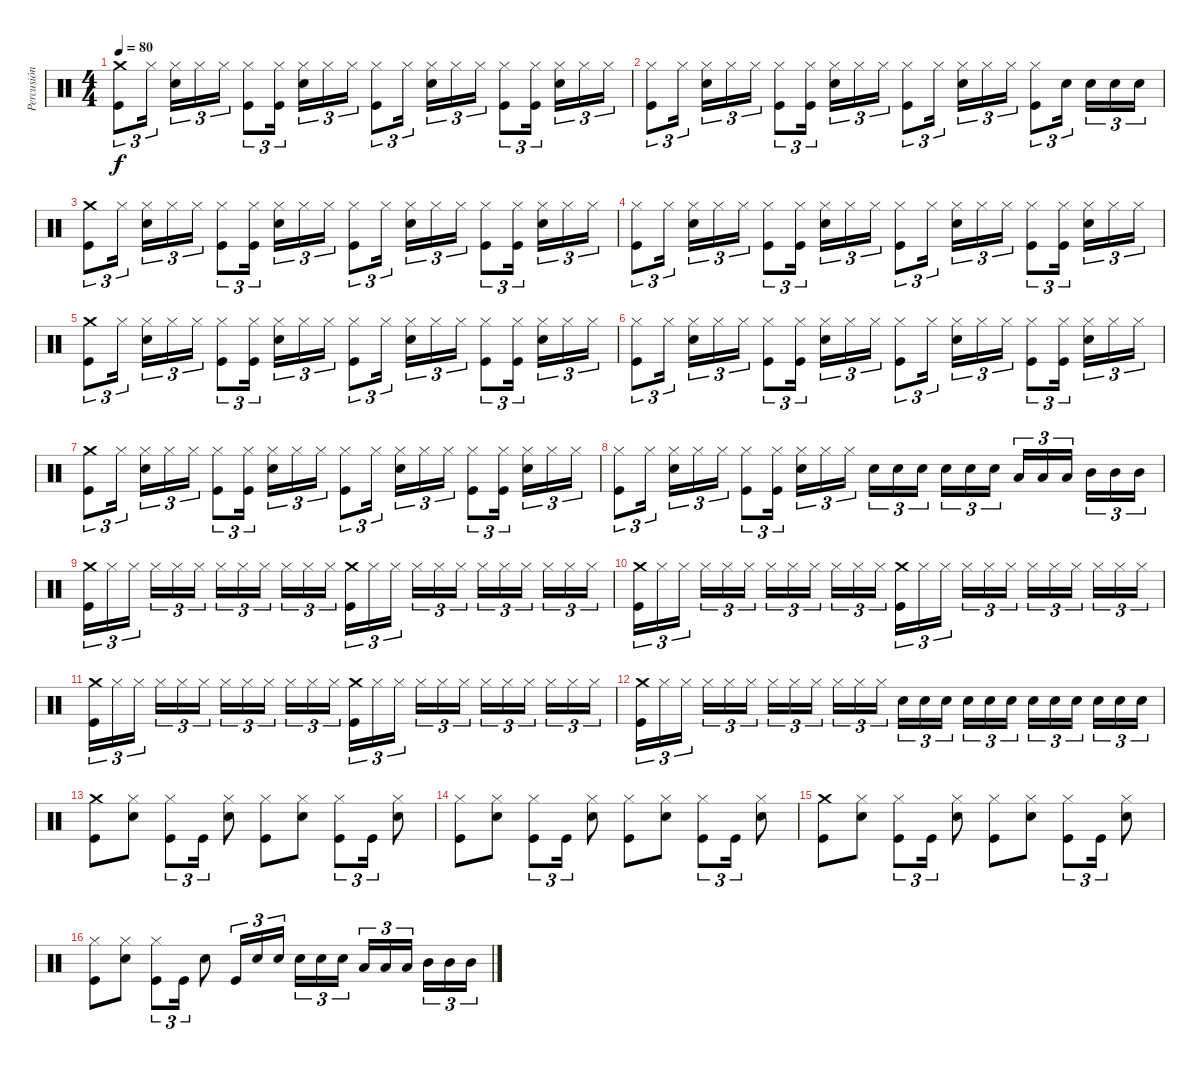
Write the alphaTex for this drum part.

\track ("Percusión con doble bombo" "Percusión ") {mute instrument percussion}
\staff {score}
\articulation defaults
\ts (4 4)
\tempo 80
\clef neutral
\ks c
("Crash medium (hit)" "Kick (hit)").8{tu (3 2) dy f} "Hi-Hat (closed)".16{tu (3 2) beam splitsecondary} ("Hi-Hat (closed)" "Snare (hit) 2").16{tu (3 2)} "Hi-Hat (closed)".16{tu (3 2)} "Hi-Hat (closed)".16{tu (3 2)} ("Hi-Hat (closed)" "Kick (hit)").8{tu (3 2)} ("Hi-Hat (closed)" "Kick (hit)").16{tu (3 2) beam splitsecondary} ("Hi-Hat (closed)" "Snare (hit) 2").16{tu (3 2)} "Hi-Hat (closed)".16{tu (3 2)} "Hi-Hat (closed)".16{tu (3 2)} ("Hi-Hat (closed)" "Kick (hit)").8{tu (3 2)} "Hi-Hat (closed)".16{tu (3 2) beam splitsecondary} ("Hi-Hat (closed)" "Snare (hit) 2").16{tu (3 2)} "Hi-Hat (closed)".16{tu (3 2)} "Hi-Hat (closed)".16{tu (3 2)} ("Hi-Hat (closed)" "Kick (hit)").8{tu (3 2)} ("Hi-Hat (closed)" "Kick (hit)").16{tu (3 2) beam splitsecondary} ("Hi-Hat (closed)" "Snare (hit) 2").16{tu (3 2)} "Hi-Hat (closed)".16{tu (3 2)} "Hi-Hat (closed)".16{tu (3 2)} |
("Hi-Hat (closed)" "Kick (hit)").8{tu (3 2)} "Hi-Hat (closed)".16{tu (3 2) beam splitsecondary} ("Hi-Hat (closed)" "Snare (hit) 2").16{tu (3 2)} "Hi-Hat (closed)".16{tu (3 2)} "Hi-Hat (closed)".16{tu (3 2)} ("Hi-Hat (closed)" "Kick (hit)").8{tu (3 2)} ("Hi-Hat (closed)" "Kick (hit)").16{tu (3 2) beam splitsecondary} ("Hi-Hat (closed)" "Snare (hit) 2").16{tu (3 2)} "Hi-Hat (closed)".16{tu (3 2)} "Hi-Hat (closed)".16{tu (3 2)} ("Hi-Hat (closed)" "Kick (hit)").8{tu (3 2)} "Hi-Hat (closed)".16{tu (3 2) beam splitsecondary} ("Hi-Hat (closed)" "Snare (hit) 2").16{tu (3 2)} "Hi-Hat (closed)".16{tu (3 2)} "Hi-Hat (closed)".16{tu (3 2)} ("Hi-Hat (closed)" "Kick (hit)").8{tu (3 2)} "Snare (hit) 2".16{tu (3 2) beam splitsecondary} "Snare (hit) 2".16{tu (3 2)} "Snare (hit) 2".16{tu (3 2)} "Snare (hit) 2".16{tu (3 2)} |
("Crash medium (hit)" "Kick (hit)").8{tu (3 2)} "Hi-Hat (closed)".16{tu (3 2) beam splitsecondary} ("Hi-Hat (closed)" "Snare (hit) 2").16{tu (3 2)} "Hi-Hat (closed)".16{tu (3 2)} "Hi-Hat (closed)".16{tu (3 2)} ("Hi-Hat (closed)" "Kick (hit)").8{tu (3 2)} ("Hi-Hat (closed)" "Kick (hit)").16{tu (3 2) beam splitsecondary} ("Hi-Hat (closed)" "Snare (hit) 2").16{tu (3 2)} "Hi-Hat (closed)".16{tu (3 2)} "Hi-Hat (closed)".16{tu (3 2)} ("Hi-Hat (closed)" "Kick (hit)").8{tu (3 2)} "Hi-Hat (closed)".16{tu (3 2) beam splitsecondary} ("Hi-Hat (closed)" "Snare (hit) 2").16{tu (3 2)} "Hi-Hat (closed)".16{tu (3 2)} "Hi-Hat (closed)".16{tu (3 2)} ("Hi-Hat (closed)" "Kick (hit)").8{tu (3 2)} ("Hi-Hat (closed)" "Kick (hit)").16{tu (3 2) beam splitsecondary} ("Hi-Hat (closed)" "Snare (hit) 2").16{tu (3 2)} "Hi-Hat (closed)".16{tu (3 2)} "Hi-Hat (closed)".16{tu (3 2)} |
("Hi-Hat (closed)" "Kick (hit)").8{tu (3 2)} "Hi-Hat (closed)".16{tu (3 2) beam splitsecondary} ("Hi-Hat (closed)" "Snare (hit) 2").16{tu (3 2)} "Hi-Hat (closed)".16{tu (3 2)} "Hi-Hat (closed)".16{tu (3 2)} ("Hi-Hat (closed)" "Kick (hit)").8{tu (3 2)} ("Hi-Hat (closed)" "Kick (hit)").16{tu (3 2) beam splitsecondary} ("Hi-Hat (closed)" "Snare (hit) 2").16{tu (3 2)} "Hi-Hat (closed)".16{tu (3 2)} "Hi-Hat (closed)".16{tu (3 2)} ("Hi-Hat (closed)" "Kick (hit)").8{tu (3 2)} "Hi-Hat (closed)".16{tu (3 2) beam splitsecondary} ("Hi-Hat (closed)" "Snare (hit) 2").16{tu (3 2)} "Hi-Hat (closed)".16{tu (3 2)} "Hi-Hat (closed)".16{tu (3 2)} ("Hi-Hat (closed)" "Kick (hit)").8{tu (3 2)} ("Hi-Hat (closed)" "Kick (hit)").16{tu (3 2) beam splitsecondary} ("Hi-Hat (closed)" "Snare (hit) 2").16{tu (3 2)} "Hi-Hat (closed)".16{tu (3 2)} "Hi-Hat (closed)".16{tu (3 2)} |
("Crash medium (hit)" "Kick (hit)").8{tu (3 2)} "Hi-Hat (closed)".16{tu (3 2) beam splitsecondary} ("Hi-Hat (closed)" "Snare (hit) 2").16{tu (3 2)} "Hi-Hat (closed)".16{tu (3 2)} "Hi-Hat (closed)".16{tu (3 2)} ("Hi-Hat (closed)" "Kick (hit)").8{tu (3 2)} ("Hi-Hat (closed)" "Kick (hit)").16{tu (3 2) beam splitsecondary} ("Hi-Hat (closed)" "Snare (hit) 2").16{tu (3 2)} "Hi-Hat (closed)".16{tu (3 2)} "Hi-Hat (closed)".16{tu (3 2)} ("Hi-Hat (closed)" "Kick (hit)").8{tu (3 2)} "Hi-Hat (closed)".16{tu (3 2) beam splitsecondary} ("Hi-Hat (closed)" "Snare (hit) 2").16{tu (3 2)} "Hi-Hat (closed)".16{tu (3 2)} "Hi-Hat (closed)".16{tu (3 2)} ("Hi-Hat (closed)" "Kick (hit)").8{tu (3 2)} ("Hi-Hat (closed)" "Kick (hit)").16{tu (3 2) beam splitsecondary} ("Hi-Hat (closed)" "Snare (hit) 2").16{tu (3 2)} "Hi-Hat (closed)".16{tu (3 2)} "Hi-Hat (closed)".16{tu (3 2)} |
("Hi-Hat (closed)" "Kick (hit)").8{tu (3 2)} "Hi-Hat (closed)".16{tu (3 2) beam splitsecondary} ("Hi-Hat (closed)" "Snare (hit) 2").16{tu (3 2)} "Hi-Hat (closed)".16{tu (3 2)} "Hi-Hat (closed)".16{tu (3 2)} ("Hi-Hat (closed)" "Kick (hit)").8{tu (3 2)} ("Hi-Hat (closed)" "Kick (hit)").16{tu (3 2) beam splitsecondary} ("Hi-Hat (closed)" "Snare (hit) 2").16{tu (3 2)} "Hi-Hat (closed)".16{tu (3 2)} "Hi-Hat (closed)".16{tu (3 2)} ("Hi-Hat (closed)" "Kick (hit)").8{tu (3 2)} "Hi-Hat (closed)".16{tu (3 2) beam splitsecondary} ("Hi-Hat (closed)" "Snare (hit) 2").16{tu (3 2)} "Hi-Hat (closed)".16{tu (3 2)} "Hi-Hat (closed)".16{tu (3 2)} ("Hi-Hat (closed)" "Kick (hit)").8{tu (3 2)} ("Hi-Hat (closed)" "Kick (hit)").16{tu (3 2) beam splitsecondary} ("Hi-Hat (closed)" "Snare (hit) 2").16{tu (3 2)} "Hi-Hat (closed)".16{tu (3 2)} "Hi-Hat (closed)".16{tu (3 2)} |
("Crash medium (hit)" "Kick (hit)").8{tu (3 2)} "Hi-Hat (closed)".16{tu (3 2) beam splitsecondary} ("Hi-Hat (closed)" "Snare (hit) 2").16{tu (3 2)} "Hi-Hat (closed)".16{tu (3 2)} "Hi-Hat (closed)".16{tu (3 2)} ("Hi-Hat (closed)" "Kick (hit)").8{tu (3 2)} ("Hi-Hat (closed)" "Kick (hit)").16{tu (3 2) beam splitsecondary} ("Hi-Hat (closed)" "Snare (hit) 2").16{tu (3 2)} "Hi-Hat (closed)".16{tu (3 2)} "Hi-Hat (closed)".16{tu (3 2)} ("Hi-Hat (closed)" "Kick (hit)").8{tu (3 2)} "Hi-Hat (closed)".16{tu (3 2) beam splitsecondary} ("Hi-Hat (closed)" "Snare (hit) 2").16{tu (3 2)} "Hi-Hat (closed)".16{tu (3 2)} "Hi-Hat (closed)".16{tu (3 2)} ("Hi-Hat (closed)" "Kick (hit)").8{tu (3 2)} ("Hi-Hat (closed)" "Kick (hit)").16{tu (3 2) beam splitsecondary} ("Hi-Hat (closed)" "Snare (hit) 2").16{tu (3 2)} "Hi-Hat (closed)".16{tu (3 2)} "Hi-Hat (closed)".16{tu (3 2)} |
("Hi-Hat (closed)" "Kick (hit)").8{tu (3 2)} "Hi-Hat (closed)".16{tu (3 2) beam splitsecondary} ("Hi-Hat (closed)" "Snare (hit) 2").16{tu (3 2)} "Hi-Hat (closed)".16{tu (3 2)} "Hi-Hat (closed)".16{tu (3 2)} ("Hi-Hat (closed)" "Kick (hit)").8{tu (3 2)} ("Hi-Hat (closed)" "Kick (hit)").16{tu (3 2) beam splitsecondary} ("Hi-Hat (closed)" "Snare (hit) 2").16{tu (3 2)} "Hi-Hat (closed)".16{tu (3 2)} "Hi-Hat (closed)".16{tu (3 2)} "Snare (hit) 2".16{tu (3 2)} "Snare (hit) 2".16{tu (3 2)} "Snare (hit) 2".16{tu (3 2) beam splitsecondary} "Snare (hit) 2".16{tu (3 2)} "Snare (hit) 2".16{tu (3 2)} "Snare (hit) 2".16{tu (3 2)} "Low Tom (hit)".16{tu (3 2)} "Low Tom (hit)".16{tu (3 2)} "Low Tom (hit)".16{tu (3 2) beam splitsecondary} "Mid Tom (hit)".16{tu (3 2)} "Mid Tom (hit)".16{tu (3 2)} "Mid Tom (hit)".16{tu (3 2)} |
("Crash medium (hit)" "Kick (hit)").16{tu (3 2)} "Hi-Hat (closed)".16{tu (3 2)} "Hi-Hat (closed)".16{tu (3 2) beam splitsecondary} "Hi-Hat (closed)".16{tu (3 2)} "Hi-Hat (closed)".16{tu (3 2)} "Hi-Hat (closed)".16{tu (3 2)} "Hi-Hat (closed)".16{tu (3 2)} "Hi-Hat (closed)".16{tu (3 2)} "Hi-Hat (closed)".16{tu (3 2) beam splitsecondary} "Hi-Hat (closed)".16{tu (3 2)} "Hi-Hat (closed)".16{tu (3 2)} "Hi-Hat (closed)".16{tu (3 2)} ("Crash medium (hit)" "Kick (hit)").16{tu (3 2)} "Hi-Hat (closed)".16{tu (3 2)} "Hi-Hat (closed)".16{tu (3 2) beam splitsecondary} "Hi-Hat (closed)".16{tu (3 2)} "Hi-Hat (closed)".16{tu (3 2)} "Hi-Hat (closed)".16{tu (3 2)} "Hi-Hat (closed)".16{tu (3 2)} "Hi-Hat (closed)".16{tu (3 2)} "Hi-Hat (closed)".16{tu (3 2) beam splitsecondary} "Hi-Hat (closed)".16{tu (3 2)} "Hi-Hat (closed)".16{tu (3 2)} "Hi-Hat (closed)".16{tu (3 2)} |
("Crash medium (hit)" "Kick (hit)").16{tu (3 2)} "Hi-Hat (closed)".16{tu (3 2)} "Hi-Hat (closed)".16{tu (3 2) beam splitsecondary} "Hi-Hat (closed)".16{tu (3 2)} "Hi-Hat (closed)".16{tu (3 2)} "Hi-Hat (closed)".16{tu (3 2)} "Hi-Hat (closed)".16{tu (3 2)} "Hi-Hat (closed)".16{tu (3 2)} "Hi-Hat (closed)".16{tu (3 2) beam splitsecondary} "Hi-Hat (closed)".16{tu (3 2)} "Hi-Hat (closed)".16{tu (3 2)} "Hi-Hat (closed)".16{tu (3 2)} ("Crash medium (hit)" "Kick (hit)").16{tu (3 2)} "Hi-Hat (closed)".16{tu (3 2)} "Hi-Hat (closed)".16{tu (3 2) beam splitsecondary} "Hi-Hat (closed)".16{tu (3 2)} "Hi-Hat (closed)".16{tu (3 2)} "Hi-Hat (closed)".16{tu (3 2)} "Hi-Hat (closed)".16{tu (3 2)} "Hi-Hat (closed)".16{tu (3 2)} "Hi-Hat (closed)".16{tu (3 2) beam splitsecondary} "Hi-Hat (closed)".16{tu (3 2)} "Hi-Hat (closed)".16{tu (3 2)} "Hi-Hat (closed)".16{tu (3 2)} |
("Crash medium (hit)" "Kick (hit)").16{tu (3 2)} "Hi-Hat (closed)".16{tu (3 2)} "Hi-Hat (closed)".16{tu (3 2) beam splitsecondary} "Hi-Hat (closed)".16{tu (3 2)} "Hi-Hat (closed)".16{tu (3 2)} "Hi-Hat (closed)".16{tu (3 2)} "Hi-Hat (closed)".16{tu (3 2)} "Hi-Hat (closed)".16{tu (3 2)} "Hi-Hat (closed)".16{tu (3 2) beam splitsecondary} "Hi-Hat (closed)".16{tu (3 2)} "Hi-Hat (closed)".16{tu (3 2)} "Hi-Hat (closed)".16{tu (3 2)} ("Crash medium (hit)" "Kick (hit)").16{tu (3 2)} "Hi-Hat (closed)".16{tu (3 2)} "Hi-Hat (closed)".16{tu (3 2) beam splitsecondary} "Hi-Hat (closed)".16{tu (3 2)} "Hi-Hat (closed)".16{tu (3 2)} "Hi-Hat (closed)".16{tu (3 2)} "Hi-Hat (closed)".16{tu (3 2)} "Hi-Hat (closed)".16{tu (3 2)} "Hi-Hat (closed)".16{tu (3 2) beam splitsecondary} "Hi-Hat (closed)".16{tu (3 2)} "Hi-Hat (closed)".16{tu (3 2)} "Hi-Hat (closed)".16{tu (3 2)} |
("Crash medium (hit)" "Kick (hit)").16{tu (3 2)} "Hi-Hat (closed)".16{tu (3 2)} "Hi-Hat (closed)".16{tu (3 2) beam splitsecondary} "Hi-Hat (closed)".16{tu (3 2)} "Hi-Hat (closed)".16{tu (3 2)} "Hi-Hat (closed)".16{tu (3 2)} "Hi-Hat (closed)".16{tu (3 2)} "Hi-Hat (closed)".16{tu (3 2)} "Hi-Hat (closed)".16{tu (3 2) beam splitsecondary} "Hi-Hat (closed)".16{tu (3 2)} "Hi-Hat (closed)".16{tu (3 2)} "Hi-Hat (closed)".16{tu (3 2)} "Snare (hit) 2".16{tu (3 2)} "Snare (hit) 2".16{tu (3 2)} "Snare (hit) 2".16{tu (3 2) beam splitsecondary} "Snare (hit) 2".16{tu (3 2)} "Snare (hit) 2".16{tu (3 2)} "Snare (hit) 2".16{tu (3 2)} "Snare (hit) 2".16{tu (3 2)} "Snare (hit) 2".16{tu (3 2)} "Snare (hit) 2".16{tu (3 2) beam splitsecondary} "Snare (hit) 2".16{tu (3 2)} "Snare (hit) 2".16{tu (3 2)} "Snare (hit) 2".16{tu (3 2)} |
("Crash medium (hit)" "Kick (hit)").8 ("Hi-Hat (closed)" "Snare (hit) 2").8 ("Hi-Hat (closed)" "Kick (hit)").8{tu (3 2)} "Kick (hit)".16{tu (3 2)} ("Hi-Hat (closed)" "Snare (hit) 2").8 ("Hi-Hat (closed)" "Kick (hit)").8 ("Hi-Hat (closed)" "Snare (hit) 2").8 ("Hi-Hat (closed)" "Kick (hit)").8{tu (3 2)} "Kick (hit)".16{tu (3 2)} ("Hi-Hat (closed)" "Snare (hit) 2").8 |
("Hi-Hat (closed)" "Kick (hit)").8 ("Hi-Hat (closed)" "Snare (hit) 2").8 ("Hi-Hat (closed)" "Kick (hit)").8{tu (3 2)} "Kick (hit)".16{tu (3 2)} ("Hi-Hat (closed)" "Snare (hit) 2").8 ("Hi-Hat (closed)" "Kick (hit)").8 ("Hi-Hat (closed)" "Snare (hit) 2").8 ("Hi-Hat (closed)" "Kick (hit)").8{tu (3 2)} "Kick (hit)".16{tu (3 2)} ("Hi-Hat (closed)" "Snare (hit) 2").8 |
("Crash medium (hit)" "Kick (hit)").8 ("Hi-Hat (closed)" "Snare (hit) 2").8 ("Hi-Hat (closed)" "Kick (hit)").8{tu (3 2)} "Kick (hit)".16{tu (3 2)} ("Hi-Hat (closed)" "Snare (hit) 2").8 ("Hi-Hat (closed)" "Kick (hit)").8 ("Hi-Hat (closed)" "Snare (hit) 2").8 ("Hi-Hat (closed)" "Kick (hit)").8{tu (3 2)} "Kick (hit)".16{tu (3 2)} ("Hi-Hat (closed)" "Snare (hit) 2").8 |
("Hi-Hat (closed)" "Kick (hit)").8 ("Hi-Hat (closed)" "Snare (hit) 2").8 ("Hi-Hat (closed)" "Kick (hit)").8{tu (3 2)} "Kick (hit)".16{tu (3 2)} "Snare (hit) 2".8 "Kick (hit)".16{tu (3 2)} "Snare (hit) 2".16{tu (3 2)} "Snare (hit) 2".16{tu (3 2) beam splitsecondary} "Snare (hit) 2".16{tu (3 2)} "Snare (hit) 2".16{tu (3 2)} "Snare (hit) 2".16{tu (3 2)} "Low Tom (hit)".16{tu (3 2)} "Low Tom (hit)".16{tu (3 2)} "Low Tom (hit)".16{tu (3 2) beam splitsecondary} "Mid Tom (hit)".16{tu (3 2)} "Mid Tom (hit)".16{tu (3 2)} "Mid Tom (hit)".16{tu (3 2)}
